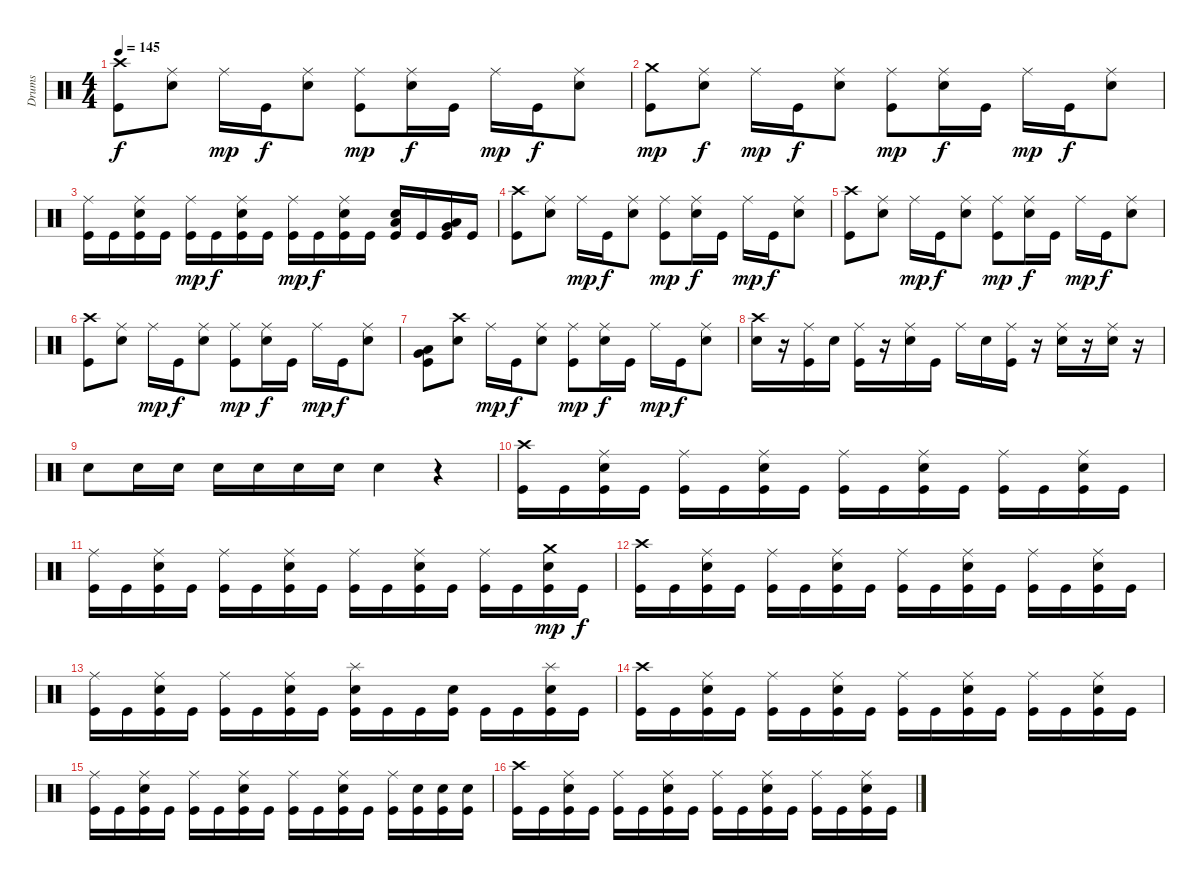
\track ("Drums" "Drums") {instrument percussion}
\staff {score}
\articulation defaults
\ts (4 4)
\tempo 145
\clef neutral
\ks c
("Crash high (hit)" "Kick (hit)").8{dy f} ("Ride (middle)" "Snare (hit) 2").8 "Ride (middle)".16{dy mp} "Kick (hit)".16{dy f} ("Ride (middle)" "Snare (hit) 2").8 ("Ride (middle)" "Kick (hit)").8{dy mp} ("Ride (middle)" "Snare (hit) 2").16{dy f} "Kick (hit)".16 "Ride (middle)".16{dy mp} "Kick (hit)".16{dy f} ("Ride (middle)" "Snare (hit) 2").8 |
("Crash medium (hit)" "Kick (hit)").8{dy mp} ("Ride (middle)" "Snare (hit) 2").8{dy f} "Ride (middle)".16{dy mp} "Kick (hit)".16{dy f} ("Ride (middle)" "Snare (hit) 2").8 ("Ride (middle)" "Kick (hit)").8{dy mp} ("Ride (middle)" "Snare (hit) 2").16{dy f} "Kick (hit)".16 "Ride (middle)".16{dy mp} "Kick (hit)".16{dy f} ("Ride (middle)" "Snare (hit) 2").8 |
("Ride (middle)" "Kick (hit)").16 "Kick (hit)".16 ("Ride (middle)" "Snare (hit) 2" "Kick (hit)").16 "Kick (hit)".16 ("Ride (middle)" "Kick (hit)").16{dy mp} "Kick (hit)".16{dy f} ("Ride (middle)" "Snare (hit) 2" "Kick (hit)").16 "Kick (hit)".16 ("Ride (middle)" "Kick (hit)").16{dy mp} "Kick (hit)".16{dy f} ("Ride (middle)" "Snare (hit) 2" "Kick (hit)").16 "Kick (hit)".16 ("Snare (hit) 2" "Kick (hit)" "Low Tom (hit)").16 "Kick (hit)".16 ("Very Low Tom (hit)" "Kick (hit)" "Low Floor Tom (hit)").16 "Kick (hit)".16 |
("Crash high (hit)" "Kick (hit)").8 ("Ride (middle)" "Snare (hit) 2").8 "Ride (middle)".16{dy mp} "Kick (hit)".16{dy f} ("Ride (middle)" "Snare (hit) 2").8 ("Ride (middle)" "Kick (hit)").8{dy mp} ("Ride (middle)" "Snare (hit) 2").16{dy f} "Kick (hit)".16 "Ride (middle)".16{dy mp} "Kick (hit)".16{dy f} ("Ride (middle)" "Snare (hit) 2").8 |
("Crash high (hit)" "Kick (hit)").8 ("Ride (middle)" "Snare (hit) 2").8 "Ride (middle)".16{dy mp} "Kick (hit)".16{dy f} ("Ride (middle)" "Snare (hit) 2").8 ("Ride (middle)" "Kick (hit)").8{dy mp} ("Ride (middle)" "Snare (hit) 2").16{dy f} "Kick (hit)".16 "Ride (middle)".16{dy mp} "Kick (hit)".16{dy f} ("Ride (middle)" "Snare (hit) 2").8 |
("Crash high (hit)" "Kick (hit)").8 ("Ride (middle)" "Snare (hit) 2").8 "Ride (middle)".16{dy mp} "Kick (hit)".16{dy f} ("Ride (middle)" "Snare (hit) 2").8 ("Ride (middle)" "Kick (hit)").8{dy mp} ("Ride (middle)" "Snare (hit) 2").16{dy f} "Kick (hit)".16 "Ride (middle)".16{dy mp} "Kick (hit)".16{dy f} ("Ride (middle)" "Snare (hit) 2").8 |
("Very Low Tom (hit)" "Kick (hit)" "Low Floor Tom (hit)").8 ("Crash high (hit)" "Snare (hit) 2").8 "Ride (middle)".16{dy mp} "Kick (hit)".16{dy f} ("Ride (middle)" "Snare (hit) 2").8 ("Ride (middle)" "Kick (hit)").8{dy mp} ("Ride (middle)" "Snare (hit) 2").16{dy f} "Kick (hit)".16 "Ride (middle)".16{dy mp} "Kick (hit)".16{dy f} ("Ride (middle)" "Snare (hit) 2").8 |
("Crash high (hit)" "Snare (hit) 2").16 r.16 ("Ride (middle)" "Kick (hit)").16 "Snare (hit) 2".16 ("Ride (middle)" "Kick (hit)").16 r.16 ("Ride (middle)" "Snare (hit) 2").16 "Kick (hit)".16 "Ride (middle)".16 "Snare (hit) 2".16 ("Ride (middle)" "Kick (hit)").16 r.16 ("Ride (middle)" "Snare (hit) 2").16 r.16 ("Ride (middle)" "Snare (hit) 2").16 r.16 |
"Snare (hit) 2".8 "Snare (hit) 2".16 "Snare (hit) 2".16 "Snare (hit) 2".16 "Snare (hit) 2".16 "Snare (hit) 2".16 "Snare (hit) 2".16 "Snare (hit) 2".4 r.4 |
("Crash high (hit)" "Kick (hit)").16 "Kick (hit)".16 ("Ride (middle)" "Snare (hit) 2" "Kick (hit)").16 "Kick (hit)".16 ("Ride (middle)" "Kick (hit)").16 "Kick (hit)".16 ("Ride (middle)" "Snare (hit) 2" "Kick (hit)").16 "Kick (hit)".16 ("Ride (middle)" "Kick (hit)").16 "Kick (hit)".16 ("Ride (middle)" "Snare (hit) 2" "Kick (hit)").16 "Kick (hit)".16 ("Ride (middle)" "Kick (hit)").16 "Kick (hit)".16 ("Ride (middle)" "Snare (hit) 2" "Kick (hit)").16 "Kick (hit)".16 |
("Ride (middle)" "Kick (hit)").16 "Kick (hit)".16 ("Ride (middle)" "Snare (hit) 2" "Kick (hit)").16 "Kick (hit)".16 ("Ride (middle)" "Kick (hit)").16 "Kick (hit)".16 ("Ride (middle)" "Snare (hit) 2" "Kick (hit)").16 "Kick (hit)".16 ("Ride (middle)" "Kick (hit)").16 "Kick (hit)".16 ("Ride (middle)" "Snare (hit) 2" "Kick (hit)").16 "Kick (hit)".16 ("Ride (middle)" "Kick (hit)").16 "Kick (hit)".16 ("Crash medium (hit)" "Snare (hit) 2" "Kick (hit)").16{dy mp} "Kick (hit)".16{dy f} |
("Crash high (hit)" "Kick (hit)").16 "Kick (hit)".16 ("Ride (middle)" "Snare (hit) 2" "Kick (hit)").16 "Kick (hit)".16 ("Ride (middle)" "Kick (hit)").16 "Kick (hit)".16 ("Ride (middle)" "Snare (hit) 2" "Kick (hit)").16 "Kick (hit)".16 ("Ride (middle)" "Kick (hit)").16 "Kick (hit)".16 ("Ride (middle)" "Snare (hit) 2" "Kick (hit)").16 "Kick (hit)".16 ("Ride (middle)" "Kick (hit)").16 "Kick (hit)".16 ("Ride (middle)" "Snare (hit) 2" "Kick (hit)").16 "Kick (hit)".16 |
("Ride (middle)" "Kick (hit)").16 "Kick (hit)".16 ("Ride (middle)" "Snare (hit) 2" "Kick (hit)").16 "Kick (hit)".16 ("Ride (middle)" "Kick (hit)").16 "Kick (hit)".16 ("Ride (middle)" "Snare (hit) 2" "Kick (hit)").16 "Kick (hit)".16 ("Splash (hit)" "Snare (hit) 2" "Kick (hit)").16 "Kick (hit)".16 "Kick (hit)".16 ("Snare (hit) 2" "Kick (hit)").16 "Kick (hit)".16 "Kick (hit)".16 ("Splash (hit)" "Snare (hit) 2" "Kick (hit)").16 "Kick (hit)".16 |
("Crash high (hit)" "Kick (hit)").16 "Kick (hit)".16 ("Ride (middle)" "Snare (hit) 2" "Kick (hit)").16 "Kick (hit)".16 ("Ride (middle)" "Kick (hit)").16 "Kick (hit)".16 ("Ride (middle)" "Snare (hit) 2" "Kick (hit)").16 "Kick (hit)".16 ("Ride (middle)" "Kick (hit)").16 "Kick (hit)".16 ("Ride (middle)" "Snare (hit) 2" "Kick (hit)").16 "Kick (hit)".16 ("Ride (middle)" "Kick (hit)").16 "Kick (hit)".16 ("Ride (middle)" "Snare (hit) 2" "Kick (hit)").16 "Kick (hit)".16 |
("Ride (middle)" "Kick (hit)").16 "Kick (hit)".16 ("Ride (middle)" "Snare (hit) 2" "Kick (hit)").16 "Kick (hit)".16 ("Ride (middle)" "Kick (hit)").16 "Kick (hit)".16 ("Ride (middle)" "Snare (hit) 2" "Kick (hit)").16 "Kick (hit)".16 ("Ride (middle)" "Kick (hit)").16 "Kick (hit)".16 ("Ride (middle)" "Snare (hit) 2" "Kick (hit)").16 "Kick (hit)".16 ("Ride (middle)" "Kick (hit)").16 ("Snare (hit) 2" "Kick (hit)").16 ("Snare (hit) 2" "Kick (hit)").16 ("Snare (hit) 2" "Kick (hit)").16 |
("Crash high (hit)" "Kick (hit)").16 "Kick (hit)".16 ("Ride (middle)" "Snare (hit) 2" "Kick (hit)").16 "Kick (hit)".16 ("Ride (middle)" "Kick (hit)").16 "Kick (hit)".16 ("Ride (middle)" "Snare (hit) 2" "Kick (hit)").16 "Kick (hit)".16 ("Ride (middle)" "Kick (hit)").16 "Kick (hit)".16 ("Ride (middle)" "Snare (hit) 2" "Kick (hit)").16 "Kick (hit)".16 ("Ride (middle)" "Kick (hit)").16 "Kick (hit)".16 ("Ride (middle)" "Snare (hit) 2" "Kick (hit)").16 "Kick (hit)".16
